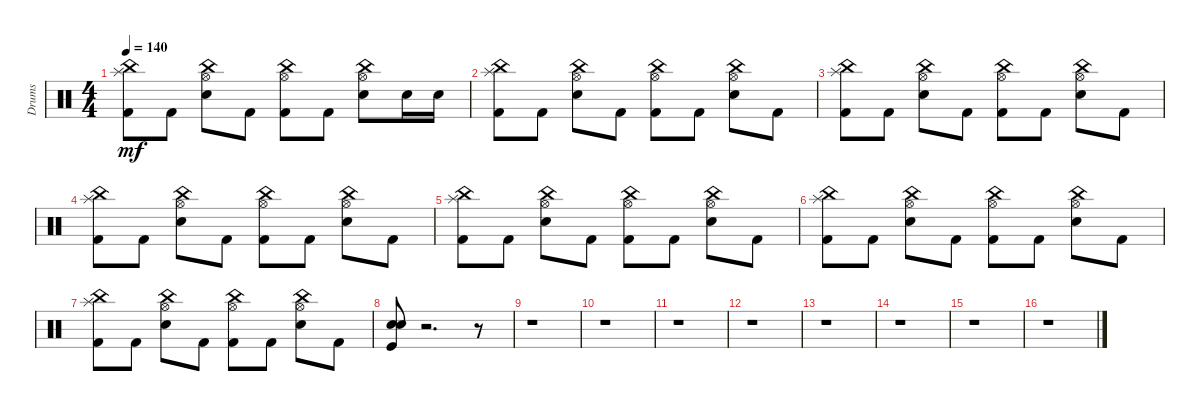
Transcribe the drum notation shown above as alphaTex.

\track ("Drums" "Drums") {instrument percussion}
\staff {score}
\articulation defaults
\ts (4 4)
\tempo 140
\clef neutral
\ks c
("Splash (hit)" "China (hit)" "Kick (hit) 2").8{dy mf} "Kick (hit) 2".8 ("China (hit)" "Electric Snare (hit)" "Hi-Hat (open)").8 "Kick (hit) 2".8 ("Hi-Hat (open)" "Kick (hit) 2" "China (hit)").8 "Kick (hit) 2".8 ("Hi-Hat (open)" "Electric Snare (hit)" "China (hit)").8 "Electric Snare (hit)".16 "Snare (hit) 2".16 |
("Splash (hit)" "China (hit)" "Kick (hit) 2").8 "Kick (hit) 2".8 ("China (hit)" "Electric Snare (hit)" "Hi-Hat (open)").8 "Kick (hit) 2".8 ("China (hit)" "Kick (hit) 2" "Hi-Hat (open)").8 "Kick (hit) 2".8 ("Hi-Hat (open)" "Electric Snare (hit)" "China (hit)").8 "Kick (hit) 2".8 |
("Splash (hit)" "China (hit)" "Kick (hit) 2").8 "Kick (hit) 2".8 ("Electric Snare (hit)" "China (hit)" "Hi-Hat (open)").8 "Kick (hit) 2".8 ("Hi-Hat (open)" "Kick (hit) 2" "China (hit)").8 "Kick (hit) 2".8 ("Hi-Hat (open)" "Electric Snare (hit)" "China (hit)").8 "Kick (hit) 2".8 |
("Splash (hit)" "China (hit)" "Kick (hit) 2").8 "Kick (hit) 2".8 ("China (hit)" "Electric Snare (hit)" "Hi-Hat (open)").8 "Kick (hit) 2".8 ("Hi-Hat (open)" "Kick (hit) 2" "China (hit)").8 "Kick (hit) 2".8 ("Hi-Hat (open)" "Electric Snare (hit)" "China (hit)").8 "Kick (hit) 2".8 |
("Splash (hit)" "China (hit)" "Kick (hit) 2").8 "Kick (hit) 2".8 ("Electric Snare (hit)" "China (hit)" "Hi-Hat (open)").8 "Kick (hit) 2".8 ("Hi-Hat (open)" "Kick (hit) 2" "China (hit)").8 "Kick (hit) 2".8 ("Hi-Hat (open)" "Electric Snare (hit)" "China (hit)").8 "Kick (hit) 2".8 |
("Splash (hit)" "China (hit)" "Kick (hit) 2").8 "Kick (hit) 2".8 ("Hi-Hat (open)" "Electric Snare (hit)" "China (hit)").8 "Kick (hit) 2".8 ("China (hit)" "Hi-Hat (open)" "Kick (hit) 2").8 "Kick (hit) 2".8 ("Hi-Hat (open)" "Electric Snare (hit)" "China (hit)").8 "Kick (hit) 2".8 |
("Splash (hit)" "China (hit)" "Kick (hit) 2").8 "Kick (hit) 2".8 ("China (hit)" "Electric Snare (hit)" "Hi-Hat (open)").8 "Kick (hit) 2".8 ("China (hit)" "Kick (hit) 2" "Hi-Hat (open)").8 "Kick (hit) 2".8 ("Hi-Hat (open)" "Electric Snare (hit)" "China (hit)").8 "Kick (hit) 2".8 |
("Kick (hit)" "Snare (hit) 2" "Electric Snare (hit)").8 r.2{d} r.8 |
r.1 |
r.1 |
r.1 |
r.1 |
r.1 |
r.1 |
r.1 |
r.1
